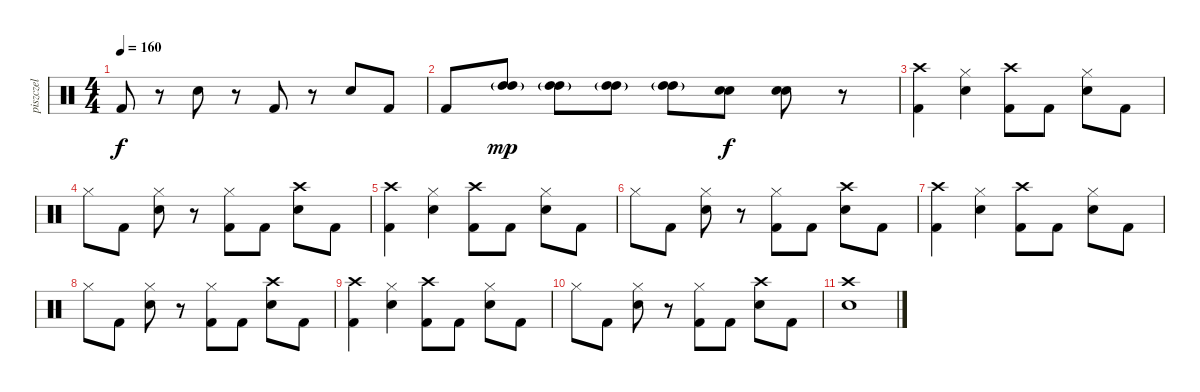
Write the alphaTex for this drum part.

\track ("piszczel" "piszczel") {instrument percussion}
\staff {score}
\articulation defaults
\ts (4 4)
\tempo 160
\clef neutral
\ks c "Kick (hit) 2".8{dy f}
r.8 "Snare (hit) 2".8 r.8 "Kick (hit) 2".8 r.8 "Snare (hit) 2".8 "Kick (hit) 2".8 |
"Kick (hit) 2".8 ("High Tom (hit)"{g} "High Tom (hit)"{g}).8{dy mp} ("High Tom (hit)"{g} "High Tom (hit)"{g}).8 ("High Tom (hit)"{g} "High Tom (hit)"{g}).8 ("High Tom (hit)"{g} "High Tom (hit)"{g}).8 ("Snare (hit) 2" "Snare (hit) 2").8{dy f} ("Snare (hit) 2" "Snare (hit) 2").8 r.8 |
("Crash high (hit)" "Kick (hit) 2").4 ("Hi-Hat (closed)" "Snare (hit) 2").4 ("Crash high (hit)" "Kick (hit) 2").8 "Kick (hit) 2".8 ("Hi-Hat (closed)" "Snare (hit) 2").8 "Kick (hit) 2".8 |
"Hi-Hat (closed)".8 "Kick (hit) 2".8 ("Hi-Hat (closed)" "Snare (hit) 2").8 r.8 ("Hi-Hat (closed)" "Kick (hit) 2").8 "Kick (hit) 2".8 ("Crash high (hit)" "Snare (hit) 2").8 "Kick (hit) 2".8 |
("Crash high (hit)" "Kick (hit) 2").4 ("Hi-Hat (closed)" "Snare (hit) 2").4 ("Crash high (hit)" "Kick (hit) 2").8 "Kick (hit) 2".8 ("Hi-Hat (closed)" "Snare (hit) 2").8 "Kick (hit) 2".8 |
"Hi-Hat (closed)".8 "Kick (hit) 2".8 ("Hi-Hat (closed)" "Snare (hit) 2").8 r.8 ("Hi-Hat (closed)" "Kick (hit) 2").8 "Kick (hit) 2".8 ("Crash high (hit)" "Snare (hit) 2").8 "Kick (hit) 2".8 |
("Crash high (hit)" "Kick (hit) 2").4 ("Hi-Hat (closed)" "Snare (hit) 2").4 ("Crash high (hit)" "Kick (hit) 2").8 "Kick (hit) 2".8 ("Hi-Hat (closed)" "Snare (hit) 2").8 "Kick (hit) 2".8 |
"Hi-Hat (closed)".8 "Kick (hit) 2".8 ("Hi-Hat (closed)" "Snare (hit) 2").8 r.8 ("Hi-Hat (closed)" "Kick (hit) 2").8 "Kick (hit) 2".8 ("Crash high (hit)" "Snare (hit) 2").8 "Kick (hit) 2".8 |
("Crash high (hit)" "Kick (hit) 2").4 ("Hi-Hat (closed)" "Snare (hit) 2").4 ("Crash high (hit)" "Kick (hit) 2").8 "Kick (hit) 2".8 ("Hi-Hat (closed)" "Snare (hit) 2").8 "Kick (hit) 2".8 |
"Hi-Hat (closed)".8 "Kick (hit) 2".8 ("Hi-Hat (closed)" "Snare (hit) 2").8 r.8 ("Hi-Hat (closed)" "Kick (hit) 2").8 "Kick (hit) 2".8 ("Crash high (hit)" "Snare (hit) 2").8 "Kick (hit) 2".8 |
("Crash high (hit)" "Snare (hit) 2").1
